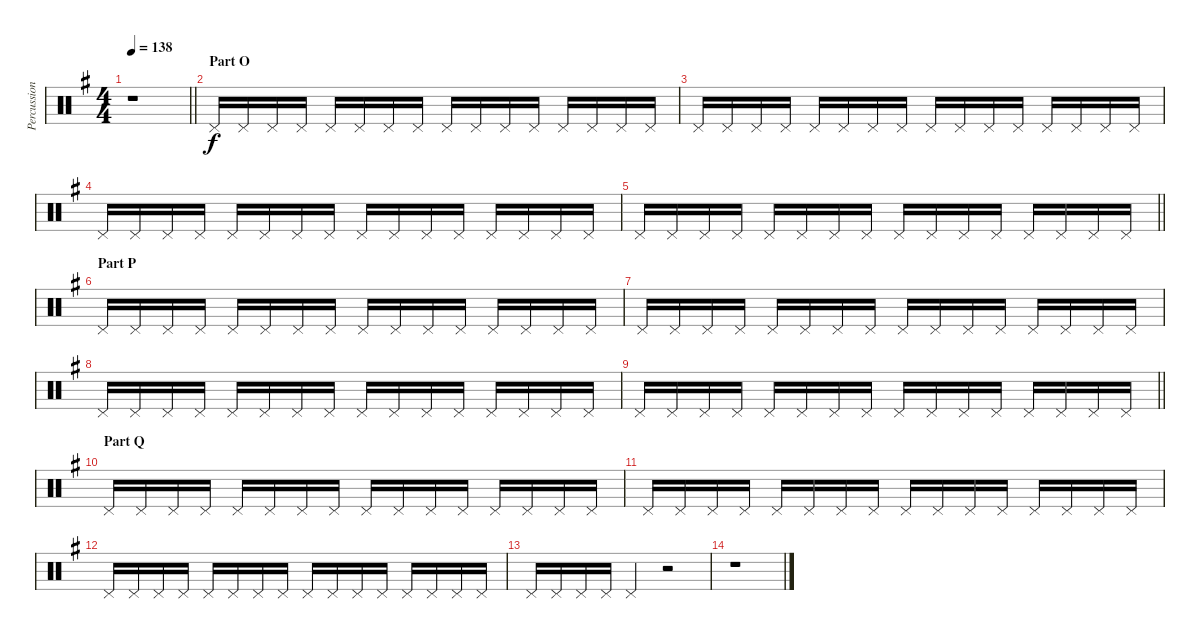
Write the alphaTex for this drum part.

\track ("Percussion" "Percussion") {instrument percussion}
\staff {score}
\articulation defaults
\ts (4 4)
\tempo 138
\clef neutral
\barLineRight lightlight
\ks g
r.1{dy f} |
\section ("" "Part O")
"Pedal Hi-Hat (hit)".16 "Pedal Hi-Hat (hit)".16 "Pedal Hi-Hat (hit)".16 "Pedal Hi-Hat (hit)".16 "Pedal Hi-Hat (hit)".16 "Pedal Hi-Hat (hit)".16 "Pedal Hi-Hat (hit)".16 "Pedal Hi-Hat (hit)".16 "Pedal Hi-Hat (hit)".16 "Pedal Hi-Hat (hit)".16 "Pedal Hi-Hat (hit)".16 "Pedal Hi-Hat (hit)".16 "Pedal Hi-Hat (hit)".16 "Pedal Hi-Hat (hit)".16 "Pedal Hi-Hat (hit)".16 "Pedal Hi-Hat (hit)".16 |
"Pedal Hi-Hat (hit)".16 "Pedal Hi-Hat (hit)".16 "Pedal Hi-Hat (hit)".16 "Pedal Hi-Hat (hit)".16 "Pedal Hi-Hat (hit)".16 "Pedal Hi-Hat (hit)".16 "Pedal Hi-Hat (hit)".16 "Pedal Hi-Hat (hit)".16 "Pedal Hi-Hat (hit)".16 "Pedal Hi-Hat (hit)".16 "Pedal Hi-Hat (hit)".16 "Pedal Hi-Hat (hit)".16 "Pedal Hi-Hat (hit)".16 "Pedal Hi-Hat (hit)".16 "Pedal Hi-Hat (hit)".16 "Pedal Hi-Hat (hit)".16 |
"Pedal Hi-Hat (hit)".16 "Pedal Hi-Hat (hit)".16 "Pedal Hi-Hat (hit)".16 "Pedal Hi-Hat (hit)".16 "Pedal Hi-Hat (hit)".16 "Pedal Hi-Hat (hit)".16 "Pedal Hi-Hat (hit)".16 "Pedal Hi-Hat (hit)".16 "Pedal Hi-Hat (hit)".16 "Pedal Hi-Hat (hit)".16 "Pedal Hi-Hat (hit)".16 "Pedal Hi-Hat (hit)".16 "Pedal Hi-Hat (hit)".16 "Pedal Hi-Hat (hit)".16 "Pedal Hi-Hat (hit)".16 "Pedal Hi-Hat (hit)".16 |
\barLineRight lightlight "Pedal Hi-Hat (hit)".16 "Pedal Hi-Hat (hit)".16 "Pedal Hi-Hat (hit)".16 "Pedal Hi-Hat (hit)".16 "Pedal Hi-Hat (hit)".16 "Pedal Hi-Hat (hit)".16 "Pedal Hi-Hat (hit)".16 "Pedal Hi-Hat (hit)".16 "Pedal Hi-Hat (hit)".16 "Pedal Hi-Hat (hit)".16 "Pedal Hi-Hat (hit)".16 "Pedal Hi-Hat (hit)".16 "Pedal Hi-Hat (hit)".16 "Pedal Hi-Hat (hit)".16 "Pedal Hi-Hat (hit)".16 "Pedal Hi-Hat (hit)".16
|
\section ("" "Part P")
"Pedal Hi-Hat (hit)".16 "Pedal Hi-Hat (hit)".16 "Pedal Hi-Hat (hit)".16 "Pedal Hi-Hat (hit)".16 "Pedal Hi-Hat (hit)".16 "Pedal Hi-Hat (hit)".16 "Pedal Hi-Hat (hit)".16 "Pedal Hi-Hat (hit)".16 "Pedal Hi-Hat (hit)".16 "Pedal Hi-Hat (hit)".16 "Pedal Hi-Hat (hit)".16 "Pedal Hi-Hat (hit)".16 "Pedal Hi-Hat (hit)".16 "Pedal Hi-Hat (hit)".16 "Pedal Hi-Hat (hit)".16 "Pedal Hi-Hat (hit)".16 |
"Pedal Hi-Hat (hit)".16 "Pedal Hi-Hat (hit)".16 "Pedal Hi-Hat (hit)".16 "Pedal Hi-Hat (hit)".16 "Pedal Hi-Hat (hit)".16 "Pedal Hi-Hat (hit)".16 "Pedal Hi-Hat (hit)".16 "Pedal Hi-Hat (hit)".16 "Pedal Hi-Hat (hit)".16 "Pedal Hi-Hat (hit)".16 "Pedal Hi-Hat (hit)".16 "Pedal Hi-Hat (hit)".16 "Pedal Hi-Hat (hit)".16 "Pedal Hi-Hat (hit)".16 "Pedal Hi-Hat (hit)".16 "Pedal Hi-Hat (hit)".16 |
"Pedal Hi-Hat (hit)".16 "Pedal Hi-Hat (hit)".16 "Pedal Hi-Hat (hit)".16 "Pedal Hi-Hat (hit)".16 "Pedal Hi-Hat (hit)".16 "Pedal Hi-Hat (hit)".16 "Pedal Hi-Hat (hit)".16 "Pedal Hi-Hat (hit)".16 "Pedal Hi-Hat (hit)".16 "Pedal Hi-Hat (hit)".16 "Pedal Hi-Hat (hit)".16 "Pedal Hi-Hat (hit)".16 "Pedal Hi-Hat (hit)".16 "Pedal Hi-Hat (hit)".16 "Pedal Hi-Hat (hit)".16 "Pedal Hi-Hat (hit)".16 |
\barLineRight lightlight "Pedal Hi-Hat (hit)".16 "Pedal Hi-Hat (hit)".16 "Pedal Hi-Hat (hit)".16 "Pedal Hi-Hat (hit)".16 "Pedal Hi-Hat (hit)".16 "Pedal Hi-Hat (hit)".16 "Pedal Hi-Hat (hit)".16 "Pedal Hi-Hat (hit)".16 "Pedal Hi-Hat (hit)".16 "Pedal Hi-Hat (hit)".16 "Pedal Hi-Hat (hit)".16 "Pedal Hi-Hat (hit)".16 "Pedal Hi-Hat (hit)".16 "Pedal Hi-Hat (hit)".16 "Pedal Hi-Hat (hit)".16 "Pedal Hi-Hat (hit)".16
|
\section ("" "Part Q")
"Pedal Hi-Hat (hit)".16 "Pedal Hi-Hat (hit)".16 "Pedal Hi-Hat (hit)".16 "Pedal Hi-Hat (hit)".16 "Pedal Hi-Hat (hit)".16 "Pedal Hi-Hat (hit)".16 "Pedal Hi-Hat (hit)".16 "Pedal Hi-Hat (hit)".16 "Pedal Hi-Hat (hit)".16 "Pedal Hi-Hat (hit)".16 "Pedal Hi-Hat (hit)".16 "Pedal Hi-Hat (hit)".16 "Pedal Hi-Hat (hit)".16 "Pedal Hi-Hat (hit)".16 "Pedal Hi-Hat (hit)".16 "Pedal Hi-Hat (hit)".16 |
"Pedal Hi-Hat (hit)".16 "Pedal Hi-Hat (hit)".16 "Pedal Hi-Hat (hit)".16 "Pedal Hi-Hat (hit)".16 "Pedal Hi-Hat (hit)".16 "Pedal Hi-Hat (hit)".16 "Pedal Hi-Hat (hit)".16 "Pedal Hi-Hat (hit)".16 "Pedal Hi-Hat (hit)".16 "Pedal Hi-Hat (hit)".16 "Pedal Hi-Hat (hit)".16 "Pedal Hi-Hat (hit)".16 "Pedal Hi-Hat (hit)".16 "Pedal Hi-Hat (hit)".16 "Pedal Hi-Hat (hit)".16 "Pedal Hi-Hat (hit)".16 |
"Pedal Hi-Hat (hit)".16 "Pedal Hi-Hat (hit)".16 "Pedal Hi-Hat (hit)".16 "Pedal Hi-Hat (hit)".16 "Pedal Hi-Hat (hit)".16 "Pedal Hi-Hat (hit)".16 "Pedal Hi-Hat (hit)".16 "Pedal Hi-Hat (hit)".16 "Pedal Hi-Hat (hit)".16 "Pedal Hi-Hat (hit)".16 "Pedal Hi-Hat (hit)".16 "Pedal Hi-Hat (hit)".16 "Pedal Hi-Hat (hit)".16 "Pedal Hi-Hat (hit)".16 "Pedal Hi-Hat (hit)".16 "Pedal Hi-Hat (hit)".16 |
"Pedal Hi-Hat (hit)".16 "Pedal Hi-Hat (hit)".16 "Pedal Hi-Hat (hit)".16 "Pedal Hi-Hat (hit)".16 "Pedal Hi-Hat (hit)".4 r.2 |
r.1
